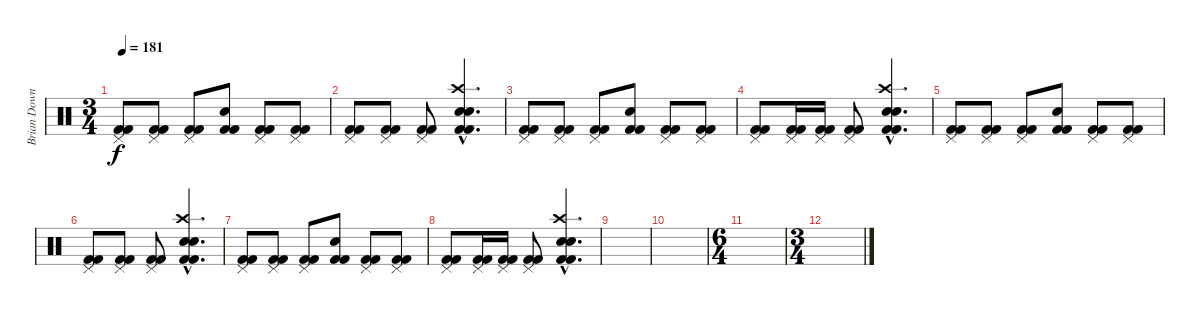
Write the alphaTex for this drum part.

\track ("Brian Downey" "Brian Down") {instrument percussion}
\staff {score}
\articulation defaults
\ts (3 4)
\tempo 181
\clef neutral
\ks c
("Pedal Hi-Hat (hit)" "Kick (hit) 2" "Kick (hit) 2").8{dy f} ("Pedal Hi-Hat (hit)" "Kick (hit) 2" "Kick (hit) 2").8 ("Pedal Hi-Hat (hit)" "Kick (hit) 2" "Kick (hit) 2").8 ("Snare (hit) 2" "Kick (hit) 2" "Kick (hit) 2").8 ("Pedal Hi-Hat (hit)" "Kick (hit) 2" "Kick (hit) 2").8 ("Pedal Hi-Hat (hit)" "Kick (hit) 2" "Kick (hit) 2").8 |
("Pedal Hi-Hat (hit)" "Kick (hit) 2" "Kick (hit) 2").8 ("Pedal Hi-Hat (hit)" "Kick (hit) 2" "Kick (hit) 2").8 ("Pedal Hi-Hat (hit)" "Kick (hit) 2" "Kick (hit) 2").8 ("Crash high (hit)"{hac} "Electric Snare (hit)"{hac} "Snare (hit) 2"{hac} "Kick (hit) 2"{hac} "Kick (hit) 2"{hac}).4{d} |
("Pedal Hi-Hat (hit)" "Kick (hit) 2" "Kick (hit) 2").8 ("Pedal Hi-Hat (hit)" "Kick (hit) 2" "Kick (hit) 2").8 ("Pedal Hi-Hat (hit)" "Kick (hit) 2" "Kick (hit) 2").8 ("Snare (hit) 2" "Kick (hit) 2" "Kick (hit) 2").8 ("Pedal Hi-Hat (hit)" "Kick (hit) 2" "Kick (hit) 2").8 ("Pedal Hi-Hat (hit)" "Kick (hit) 2" "Kick (hit) 2").8 |
("Pedal Hi-Hat (hit)" "Kick (hit) 2" "Kick (hit) 2").8 ("Pedal Hi-Hat (hit)" "Kick (hit) 2" "Kick (hit) 2").16 ("Pedal Hi-Hat (hit)" "Kick (hit) 2" "Kick (hit) 2").16 ("Pedal Hi-Hat (hit)" "Kick (hit) 2" "Kick (hit) 2").8 ("Crash high (hit)"{hac} "Electric Snare (hit)"{hac} "Snare (hit) 2"{hac} "Kick (hit) 2"{hac} "Kick (hit) 2"{hac}).4{d} |
("Pedal Hi-Hat (hit)" "Kick (hit) 2" "Kick (hit) 2").8 ("Pedal Hi-Hat (hit)" "Kick (hit) 2" "Kick (hit) 2").8 ("Pedal Hi-Hat (hit)" "Kick (hit) 2" "Kick (hit) 2").8 ("Snare (hit) 2" "Kick (hit) 2" "Kick (hit) 2").8 ("Pedal Hi-Hat (hit)" "Kick (hit) 2" "Kick (hit) 2").8 ("Pedal Hi-Hat (hit)" "Kick (hit) 2" "Kick (hit) 2").8 |
("Pedal Hi-Hat (hit)" "Kick (hit) 2" "Kick (hit) 2").8 ("Pedal Hi-Hat (hit)" "Kick (hit) 2" "Kick (hit) 2").8 ("Pedal Hi-Hat (hit)" "Kick (hit) 2" "Kick (hit) 2").8 ("Crash high (hit)"{hac} "Electric Snare (hit)"{hac} "Snare (hit) 2"{hac} "Kick (hit) 2"{hac} "Kick (hit) 2"{hac}).4{d} |
("Pedal Hi-Hat (hit)" "Kick (hit) 2" "Kick (hit) 2").8 ("Pedal Hi-Hat (hit)" "Kick (hit) 2" "Kick (hit) 2").8 ("Pedal Hi-Hat (hit)" "Kick (hit) 2" "Kick (hit) 2").8 ("Snare (hit) 2" "Kick (hit) 2" "Kick (hit) 2").8 ("Pedal Hi-Hat (hit)" "Kick (hit) 2" "Kick (hit) 2").8 ("Pedal Hi-Hat (hit)" "Kick (hit) 2" "Kick (hit) 2").8 |
("Pedal Hi-Hat (hit)" "Kick (hit) 2" "Kick (hit) 2").8 ("Pedal Hi-Hat (hit)" "Kick (hit) 2" "Kick (hit) 2").16 ("Pedal Hi-Hat (hit)" "Kick (hit) 2" "Kick (hit) 2").16 ("Pedal Hi-Hat (hit)" "Kick (hit) 2" "Kick (hit) 2").8 ("Crash high (hit)"{hac} "Electric Snare (hit)"{hac} "Snare (hit) 2"{hac} "Kick (hit) 2"{hac} "Kick (hit) 2"{hac}).4{d} |
|
|
\ts (6 4)
|
\ts (3 4)
